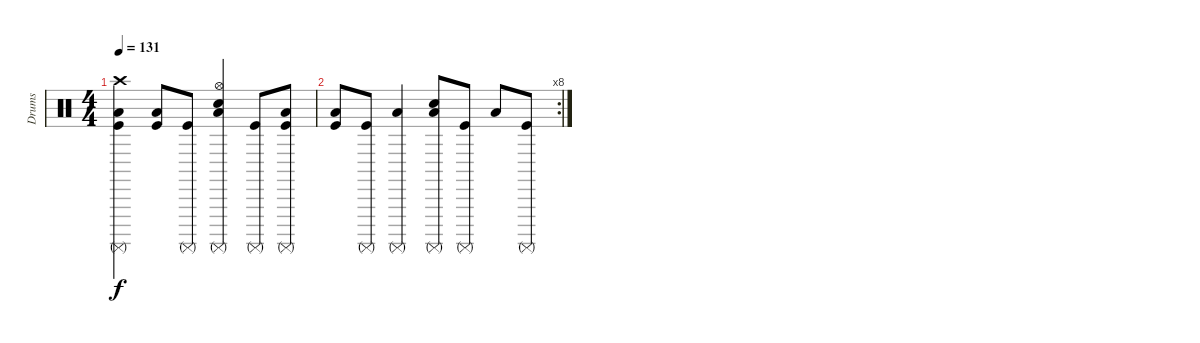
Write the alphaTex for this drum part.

\track ("Drums" "Drums") {instrument percussion}
\staff {score}
\articulation defaults
\ts (4 4)
\tempo 131
\clef neutral
\ks c
("Crash high (hit)" "Surdo (mute)" "Low Floor Tom (hit)" "Kick (hit)").4{dy f} ("Low Floor Tom (hit)" "Kick (hit)").8 ("Surdo (mute)" "Kick (hit)").8 ("Hi-Hat (open)" "Surdo (mute)" "Low Floor Tom (hit)" "Snare (hit) 2").4 ("Surdo (mute)" "Kick (hit)").8 ("Surdo (mute)" "Low Floor Tom (hit)" "Kick (hit)").8 |
\rc 8
("Low Floor Tom (hit)" "Kick (hit)").8 ("Surdo (mute)" "Kick (hit)").8 ("Surdo (mute)" "Low Floor Tom (hit)").4 ("Surdo (mute)" "Low Floor Tom (hit)" "Snare (hit) 2").8 ("Surdo (mute)" "Kick (hit)").8 "Low Floor Tom (hit)".8 ("Surdo (mute)" "Kick (hit)").8
